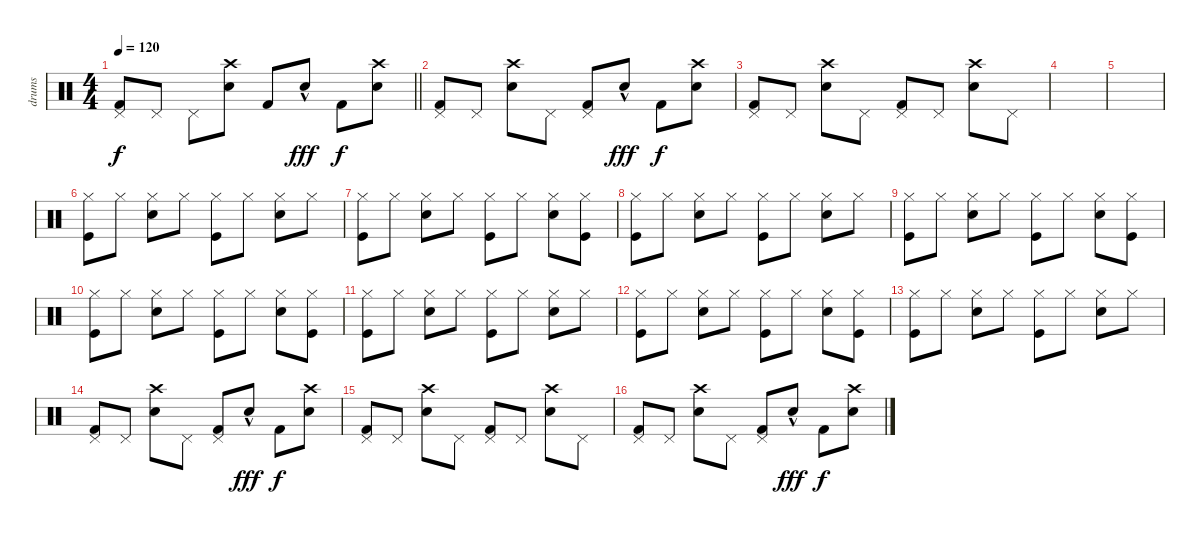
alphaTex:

\track ("drums" "drums") {instrument percussion}
\staff {score}
\articulation defaults
\ts (4 4)
\tempo 120
\clef neutral
\barLineRight lightlight
\ks c
("Pedal Hi-Hat (hit)" "Kick (hit) 2").8{dy f} "Pedal Hi-Hat (hit)".8 "Pedal Hi-Hat (hit)".8 ("Crash high (hit)" "Electric Snare (hit)").8 "Kick (hit) 2".8 "Electric Snare (hit)"{hac}.8{dy fff} "Kick (hit) 2".8{dy f} ("Crash high (hit)" "Electric Snare (hit)").8 |
("Pedal Hi-Hat (hit)" "Kick (hit) 2").8 "Pedal Hi-Hat (hit)".8 ("Crash high (hit)" "Electric Snare (hit)").8 "Pedal Hi-Hat (hit)".8 ("Pedal Hi-Hat (hit)" "Kick (hit) 2").8 "Electric Snare (hit)"{hac}.8{dy fff} "Kick (hit) 2".8{dy f} ("Crash high (hit)" "Electric Snare (hit)").8 |
("Pedal Hi-Hat (hit)" "Kick (hit) 2").8 "Pedal Hi-Hat (hit)".8 ("Crash high (hit)" "Electric Snare (hit)").8 "Pedal Hi-Hat (hit)".8 ("Pedal Hi-Hat (hit)" "Kick (hit) 2").8 "Pedal Hi-Hat (hit)".8 ("Crash high (hit)" "Electric Snare (hit)").8 "Pedal Hi-Hat (hit)".8 |
|
|
("Hi-Hat (closed)" "Kick (hit)").8 "Hi-Hat (closed)".8 ("Hi-Hat (closed)" "Snare (hit) 2").8 "Hi-Hat (closed)".8 ("Hi-Hat (closed)" "Kick (hit)").8 "Hi-Hat (closed)".8 ("Hi-Hat (closed)" "Snare (hit) 2").8 "Hi-Hat (closed)".8 |
("Hi-Hat (closed)" "Kick (hit)").8 "Hi-Hat (closed)".8 ("Hi-Hat (closed)" "Snare (hit) 2").8 "Hi-Hat (closed)".8 ("Hi-Hat (closed)" "Kick (hit)").8 "Hi-Hat (closed)".8 ("Hi-Hat (closed)" "Snare (hit) 2").8 ("Hi-Hat (closed)" "Kick (hit)").8 |
("Hi-Hat (closed)" "Kick (hit)").8 "Hi-Hat (closed)".8 ("Hi-Hat (closed)" "Snare (hit) 2").8 "Hi-Hat (closed)".8 ("Hi-Hat (closed)" "Kick (hit)").8 "Hi-Hat (closed)".8 ("Hi-Hat (closed)" "Snare (hit) 2").8 "Hi-Hat (closed)".8 |
("Hi-Hat (closed)" "Kick (hit)").8 "Hi-Hat (closed)".8 ("Hi-Hat (closed)" "Snare (hit) 2").8 "Hi-Hat (closed)".8 ("Hi-Hat (closed)" "Kick (hit)").8 "Hi-Hat (closed)".8 ("Hi-Hat (closed)" "Snare (hit) 2").8 ("Hi-Hat (closed)" "Kick (hit)").8 |
("Hi-Hat (closed)" "Kick (hit)").8 "Hi-Hat (closed)".8 ("Hi-Hat (closed)" "Snare (hit) 2").8 "Hi-Hat (closed)".8 ("Hi-Hat (closed)" "Kick (hit)").8 "Hi-Hat (closed)".8 ("Hi-Hat (closed)" "Snare (hit) 2").8 ("Hi-Hat (closed)" "Kick (hit)").8 |
("Hi-Hat (closed)" "Kick (hit)").8 "Hi-Hat (closed)".8 ("Hi-Hat (closed)" "Snare (hit) 2").8 "Hi-Hat (closed)".8 ("Hi-Hat (closed)" "Kick (hit)").8 "Hi-Hat (closed)".8 ("Hi-Hat (closed)" "Snare (hit) 2").8 "Hi-Hat (closed)".8 |
("Hi-Hat (closed)" "Kick (hit)").8 "Hi-Hat (closed)".8 ("Hi-Hat (closed)" "Snare (hit) 2").8 "Hi-Hat (closed)".8 ("Hi-Hat (closed)" "Kick (hit)").8 "Hi-Hat (closed)".8 ("Hi-Hat (closed)" "Snare (hit) 2").8 ("Hi-Hat (closed)" "Kick (hit)").8 |
("Hi-Hat (closed)" "Kick (hit)").8 "Hi-Hat (closed)".8 ("Hi-Hat (closed)" "Snare (hit) 2").8 "Hi-Hat (closed)".8 ("Hi-Hat (closed)" "Kick (hit)").8 "Hi-Hat (closed)".8 ("Hi-Hat (closed)" "Snare (hit) 2").8 "Hi-Hat (closed)".8 |
("Pedal Hi-Hat (hit)" "Kick (hit) 2").8 "Pedal Hi-Hat (hit)".8 ("Crash high (hit)" "Electric Snare (hit)").8 "Pedal Hi-Hat (hit)".8 ("Pedal Hi-Hat (hit)" "Kick (hit) 2").8 "Electric Snare (hit)"{hac}.8{dy fff} "Kick (hit) 2".8{dy f} ("Crash high (hit)" "Electric Snare (hit)").8 |
("Pedal Hi-Hat (hit)" "Kick (hit) 2").8 "Pedal Hi-Hat (hit)".8 ("Crash high (hit)" "Electric Snare (hit)").8 "Pedal Hi-Hat (hit)".8 ("Pedal Hi-Hat (hit)" "Kick (hit) 2").8 "Pedal Hi-Hat (hit)".8 ("Crash high (hit)" "Electric Snare (hit)").8 "Pedal Hi-Hat (hit)".8 |
("Pedal Hi-Hat (hit)" "Kick (hit) 2").8 "Pedal Hi-Hat (hit)".8 ("Crash high (hit)" "Electric Snare (hit)").8 "Pedal Hi-Hat (hit)".8 ("Pedal Hi-Hat (hit)" "Kick (hit) 2").8 "Electric Snare (hit)"{hac}.8{dy fff} "Kick (hit) 2".8{dy f} ("Crash high (hit)" "Electric Snare (hit)").8
